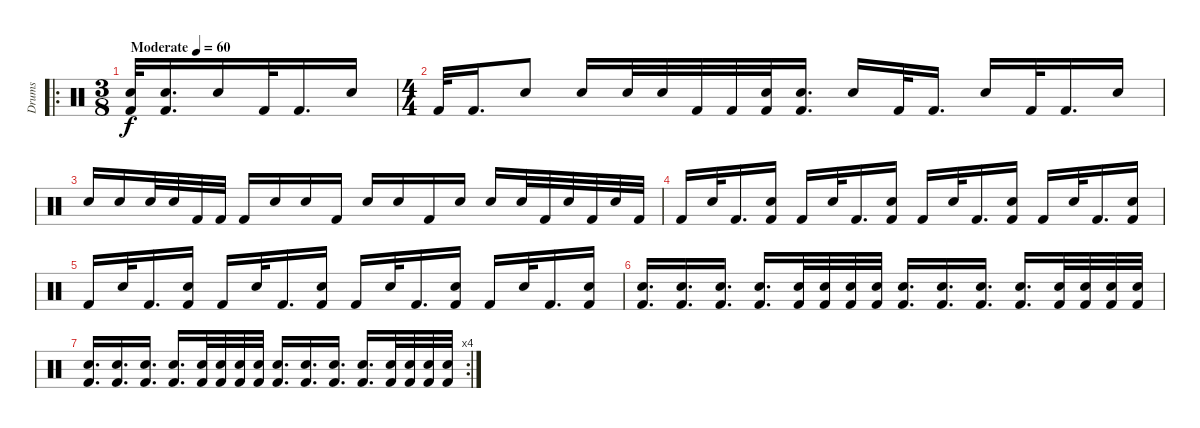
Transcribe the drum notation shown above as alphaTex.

\track ("Drums" "Drums") {instrument percussion}
\staff
\articulation defaults
\ro
\ts (3 8)
\tempo (60 "Moderate")
\clef neutral
\ks c
("Kick (hit) 2" "Snare (hit) 2").32{dy f} ("Kick (hit) 2" "Snare (hit) 2").16{d} "Snare (hit) 2".16 "Kick (hit) 2".32 "Kick (hit) 2".16{d} "Snare (hit) 2".16 |
\ts (4 4)
"Kick (hit) 2".32 "Kick (hit) 2".16{d} "Snare (hit) 2".8 "Snare (hit) 2".16 "Snare (hit) 2".32 "Snare (hit) 2".32 "Kick (hit) 2".32 "Kick (hit) 2".32 ("Kick (hit) 2" "Snare (hit) 2").32 ("Kick (hit) 2" "Snare (hit) 2").16{d} "Snare (hit) 2".16 "Kick (hit) 2".32 "Kick (hit) 2".16{d} "Snare (hit) 2".16 "Kick (hit) 2".32 "Kick (hit) 2".16{d} "Snare (hit) 2".16 |
"Snare (hit) 2".16 "Snare (hit) 2".16 "Snare (hit) 2".32 "Snare (hit) 2".32 "Kick (hit) 2".32 "Kick (hit) 2".32 "Kick (hit) 2".16 "Snare (hit) 2".16 "Snare (hit) 2".16 "Kick (hit) 2".16 "Snare (hit) 2".16 "Snare (hit) 2".16 "Kick (hit) 2".16 "Snare (hit) 2".16 "Snare (hit) 2".16 "Snare (hit) 2".32 "Kick (hit) 2".32 "Snare (hit) 2".32 "Kick (hit) 2".32 "Snare (hit) 2".32 "Kick (hit) 2".32 |
"Kick (hit) 2".16 "Snare (hit) 2".32 "Kick (hit) 2".16{d} ("Kick (hit) 2" "Snare (hit) 2").16 "Kick (hit) 2".16 "Snare (hit) 2".32 "Kick (hit) 2".16{d} ("Kick (hit) 2" "Snare (hit) 2").16 "Kick (hit) 2".16 "Snare (hit) 2".32 "Kick (hit) 2".16{d} ("Kick (hit) 2" "Snare (hit) 2").16 "Kick (hit) 2".16 "Snare (hit) 2".32 "Kick (hit) 2".16{d} ("Kick (hit) 2" "Snare (hit) 2").16 |
"Kick (hit) 2".16 "Snare (hit) 2".32 "Kick (hit) 2".16{d} ("Kick (hit) 2" "Snare (hit) 2").16 "Kick (hit) 2".16 "Snare (hit) 2".32 "Kick (hit) 2".16{d} ("Kick (hit) 2" "Snare (hit) 2").16 "Kick (hit) 2".16 "Snare (hit) 2".32 "Kick (hit) 2".16{d} ("Kick (hit) 2" "Snare (hit) 2").16 "Kick (hit) 2".16 "Snare (hit) 2".32 "Kick (hit) 2".16{d} ("Kick (hit) 2" "Snare (hit) 2").16 |
("Kick (hit) 2" "Snare (hit) 2").16{d} ("Kick (hit) 2" "Snare (hit) 2").16{d} ("Kick (hit) 2" "Snare (hit) 2").16{d} ("Kick (hit) 2" "Snare (hit) 2").16{d} ("Kick (hit) 2" "Snare (hit) 2").32 ("Kick (hit) 2" "Snare (hit) 2").32 ("Kick (hit) 2" "Snare (hit) 2").32 ("Kick (hit) 2" "Snare (hit) 2").32 ("Kick (hit) 2" "Snare (hit) 2").16{d} ("Kick (hit) 2" "Snare (hit) 2").16{d} ("Kick (hit) 2" "Snare (hit) 2").16{d} ("Kick (hit) 2" "Snare (hit) 2").16{d} ("Kick (hit) 2" "Snare (hit) 2").32 ("Kick (hit) 2" "Snare (hit) 2").32 ("Kick (hit) 2" "Snare (hit) 2").32 ("Kick (hit) 2" "Snare (hit) 2").32 |
\rc 4
("Kick (hit) 2" "Snare (hit) 2").16{d} ("Kick (hit) 2" "Snare (hit) 2").16{d} ("Kick (hit) 2" "Snare (hit) 2").16{d} ("Kick (hit) 2" "Snare (hit) 2").16{d} ("Kick (hit) 2" "Snare (hit) 2").32 ("Kick (hit) 2" "Snare (hit) 2").32 ("Kick (hit) 2" "Snare (hit) 2").32 ("Kick (hit) 2" "Snare (hit) 2").32 ("Kick (hit) 2" "Snare (hit) 2").16{d} ("Kick (hit) 2" "Snare (hit) 2").16{d} ("Kick (hit) 2" "Snare (hit) 2").16{d} ("Kick (hit) 2" "Snare (hit) 2").16{d} ("Kick (hit) 2" "Snare (hit) 2").32 ("Kick (hit) 2" "Snare (hit) 2").32 ("Kick (hit) 2" "Snare (hit) 2").32 ("Kick (hit) 2" "Snare (hit) 2").32
